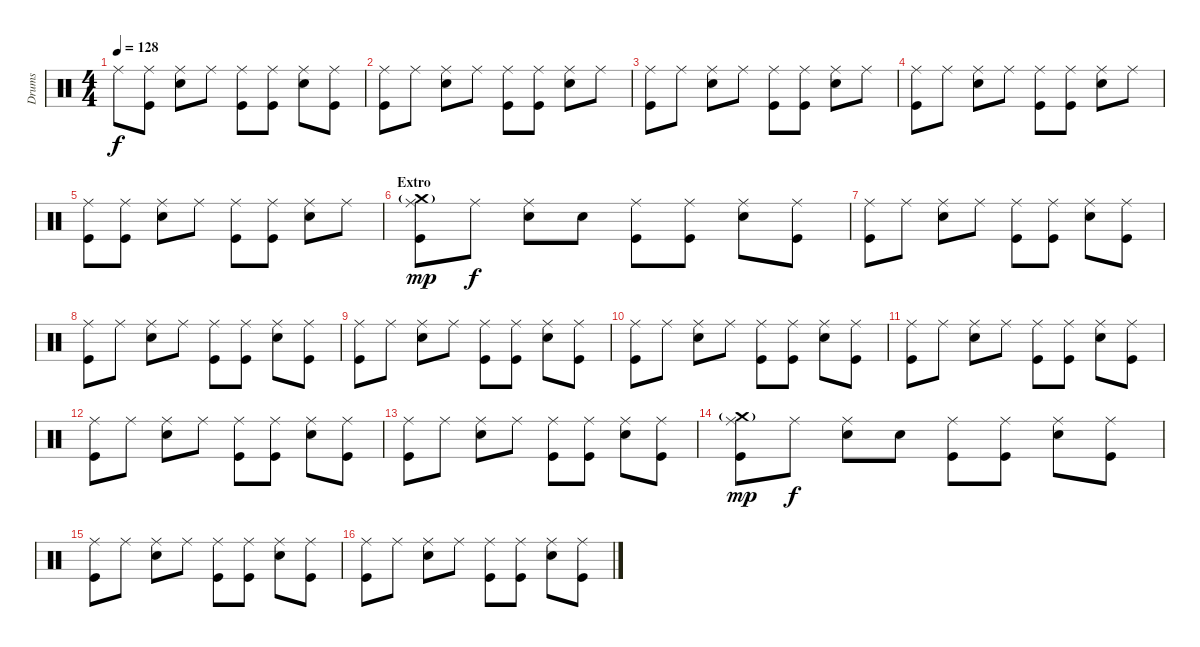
\track ("Drums" "Drums") {instrument percussion}
\staff {score}
\articulation defaults
\ts (4 4)
\tempo 128
\clef neutral
\ks c "Ride (middle)".8{dy f}
("Ride (middle)" "Kick (hit)").8 ("Ride (middle)" "Snare (hit) 2").8 "Ride (middle)".8 ("Ride (middle)" "Kick (hit)").8 ("Ride (middle)" "Kick (hit)").8 ("Ride (middle)" "Snare (hit) 2").8 ("Ride (middle)" "Kick (hit)").8 |
("Ride (middle)" "Kick (hit)").8 "Ride (middle)".8 ("Ride (middle)" "Snare (hit) 2").8 "Ride (middle)".8 ("Ride (middle)" "Kick (hit)").8 ("Ride (middle)" "Kick (hit)").8 ("Ride (middle)" "Snare (hit) 2").8 "Ride (middle)".8 |
("Ride (middle)" "Kick (hit)").8 "Ride (middle)".8 ("Ride (middle)" "Snare (hit) 2").8 "Ride (middle)".8 ("Ride (middle)" "Kick (hit)").8 ("Ride (middle)" "Kick (hit)").8 ("Ride (middle)" "Snare (hit) 2").8 "Ride (middle)".8 |
("Ride (middle)" "Kick (hit)").8 "Ride (middle)".8 ("Ride (middle)" "Snare (hit) 2").8 "Ride (middle)".8 ("Ride (middle)" "Kick (hit)").8 ("Ride (middle)" "Kick (hit)").8 ("Ride (middle)" "Snare (hit) 2").8 "Ride (middle)".8 |
("Ride (middle)" "Kick (hit)").8 ("Ride (middle)" "Kick (hit)").8 ("Ride (middle)" "Snare (hit) 2").8 "Ride (middle)".8 ("Ride (middle)" "Kick (hit)").8 ("Ride (middle)" "Kick (hit)").8 ("Ride (middle)" "Snare (hit) 2").8 "Ride (middle)".8 |
\section ("" "Extro")
("Ride (middle)" "Crash medium (hit)"{g} "Kick (hit)").8{dy mp} "Ride (middle)".8{dy f} ("Ride (middle)" "Snare (hit) 2").8 "Snare (hit)".8 ("Ride (middle)" "Kick (hit)").8 ("Ride (middle)" "Kick (hit)").8 ("Ride (middle)" "Snare (hit) 2").8 ("Ride (middle)" "Kick (hit)").8 |
("Ride (middle)" "Kick (hit)").8 "Ride (middle)".8 ("Ride (middle)" "Snare (hit) 2").8 "Ride (middle)".8 ("Ride (middle)" "Kick (hit)").8 ("Ride (middle)" "Kick (hit)").8 ("Ride (middle)" "Snare (hit) 2").8 ("Ride (middle)" "Kick (hit)").8 |
("Ride (middle)" "Kick (hit)").8 "Ride (middle)".8 ("Ride (middle)" "Snare (hit) 2").8 "Ride (middle)".8 ("Ride (middle)" "Kick (hit)").8 ("Ride (middle)" "Kick (hit)").8 ("Ride (middle)" "Snare (hit) 2").8 ("Ride (middle)" "Kick (hit)").8 |
("Ride (middle)" "Kick (hit)").8 "Ride (middle)".8 ("Ride (middle)" "Snare (hit) 2").8 "Ride (middle)".8 ("Ride (middle)" "Kick (hit)").8 ("Ride (middle)" "Kick (hit)").8 ("Ride (middle)" "Snare (hit) 2").8 ("Ride (middle)" "Kick (hit)").8 |
("Ride (middle)" "Kick (hit)").8 "Ride (middle)".8 ("Ride (middle)" "Snare (hit) 2").8 "Ride (middle)".8 ("Ride (middle)" "Kick (hit)").8 ("Ride (middle)" "Kick (hit)").8 ("Ride (middle)" "Snare (hit) 2").8 ("Ride (middle)" "Kick (hit)").8 |
("Ride (middle)" "Kick (hit)").8 "Ride (middle)".8 ("Ride (middle)" "Snare (hit) 2").8 "Ride (middle)".8 ("Ride (middle)" "Kick (hit)").8 ("Ride (middle)" "Kick (hit)").8 ("Ride (middle)" "Snare (hit) 2").8 ("Ride (middle)" "Kick (hit)").8 |
("Ride (middle)" "Kick (hit)").8 "Ride (middle)".8 ("Ride (middle)" "Snare (hit) 2").8 "Ride (middle)".8 ("Ride (middle)" "Kick (hit)").8 ("Ride (middle)" "Kick (hit)").8 ("Ride (middle)" "Snare (hit) 2").8 ("Ride (middle)" "Kick (hit)").8 |
("Ride (middle)" "Kick (hit)").8 "Ride (middle)".8 ("Ride (middle)" "Snare (hit) 2").8 "Ride (middle)".8 ("Ride (middle)" "Kick (hit)").8 ("Ride (middle)" "Kick (hit)").8 ("Ride (middle)" "Snare (hit) 2").8 ("Ride (middle)" "Kick (hit)").8 |
("Ride (middle)" "Crash medium (hit)"{g} "Kick (hit)").8{dy mp} "Ride (middle)".8{dy f} ("Ride (middle)" "Snare (hit) 2").8 "Snare (hit)".8 ("Ride (middle)" "Kick (hit)").8 ("Ride (middle)" "Kick (hit)").8 ("Ride (middle)" "Snare (hit) 2").8 ("Ride (middle)" "Kick (hit)").8 |
("Ride (middle)" "Kick (hit)").8 "Ride (middle)".8 ("Ride (middle)" "Snare (hit) 2").8 "Ride (middle)".8 ("Ride (middle)" "Kick (hit)").8 ("Ride (middle)" "Kick (hit)").8 ("Ride (middle)" "Snare (hit) 2").8 ("Ride (middle)" "Kick (hit)").8 |
("Ride (middle)" "Kick (hit)").8 "Ride (middle)".8 ("Ride (middle)" "Snare (hit) 2").8 "Ride (middle)".8 ("Ride (middle)" "Kick (hit)").8 ("Ride (middle)" "Kick (hit)").8 ("Ride (middle)" "Snare (hit) 2").8 ("Ride (middle)" "Kick (hit)").8
